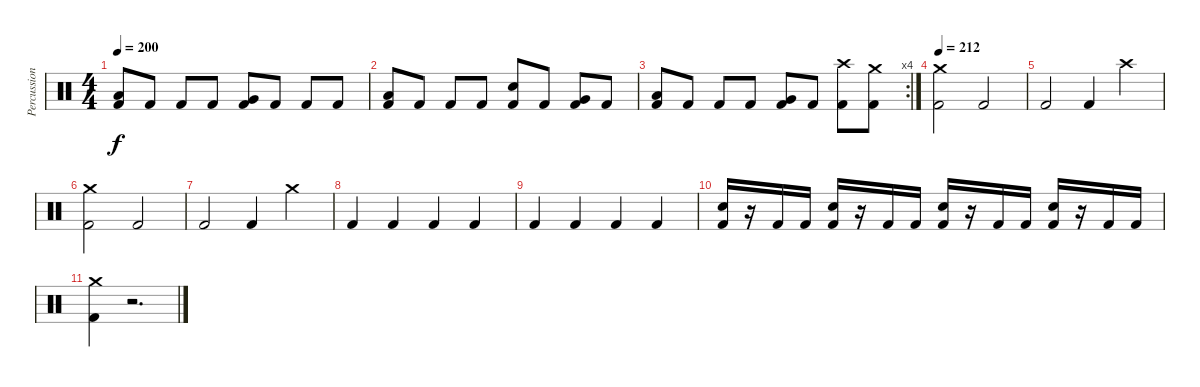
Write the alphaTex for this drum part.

\track ("Percussions" "Percussion") {instrument percussion}
\staff {score}
\articulation defaults
\ts (4 4)
\tempo 200
\clef neutral
\ks c
("Low Floor Tom (hit)" "Kick (hit) 2").8{dy f} "Kick (hit) 2".8 "Kick (hit) 2".8 "Kick (hit) 2".8 ("Very Low Tom (hit)" "Kick (hit) 2").8 "Kick (hit) 2".8 "Kick (hit) 2".8 "Kick (hit) 2".8 |
("Low Floor Tom (hit)" "Kick (hit) 2").8 "Kick (hit) 2".8 "Kick (hit) 2".8 "Kick (hit) 2".8 ("Electric Snare (hit)" "Kick (hit) 2").8 "Kick (hit) 2".8 ("Very Low Tom (hit)" "Kick (hit) 2").8 "Kick (hit) 2".8 |
\rc 4
("Low Floor Tom (hit)" "Kick (hit) 2").8 "Kick (hit) 2".8 "Kick (hit) 2".8 "Kick (hit) 2".8 ("Very Low Tom (hit)" "Kick (hit) 2").8 "Kick (hit) 2".8 ("Crash high (hit)" "Kick (hit) 2").8 ("Crash medium (hit)" "Kick (hit) 2").8 |
\tempo 212
("Crash medium (hit)" "Kick (hit) 2").2 "Kick (hit) 2".2 |
"Kick (hit) 2".2 "Kick (hit) 2".4 "Crash high (hit)".4 |
("Crash medium (hit)" "Kick (hit) 2").2 "Kick (hit) 2".2 |
"Kick (hit) 2".2 "Kick (hit) 2".4 "Crash medium (hit)".4 |
"Kick (hit) 2".4 "Kick (hit) 2".4 "Kick (hit) 2".4 "Kick (hit) 2".4 |
"Kick (hit) 2".4 "Kick (hit) 2".4 "Kick (hit) 2".4 "Kick (hit) 2".4 |
("Electric Snare (hit)" "Kick (hit) 2").16 r.16 "Kick (hit) 2".16 "Kick (hit) 2".16 ("Electric Snare (hit)" "Kick (hit) 2").16 r.16 "Kick (hit) 2".16 "Kick (hit) 2".16 ("Electric Snare (hit)" "Kick (hit) 2").16 r.16 "Kick (hit) 2".16 "Kick (hit) 2".16 ("Electric Snare (hit)" "Kick (hit) 2").16 r.16 "Kick (hit) 2".16 "Kick (hit) 2".16 |
("Crash medium (hit)" "Kick (hit) 2").4 r.2{d}
